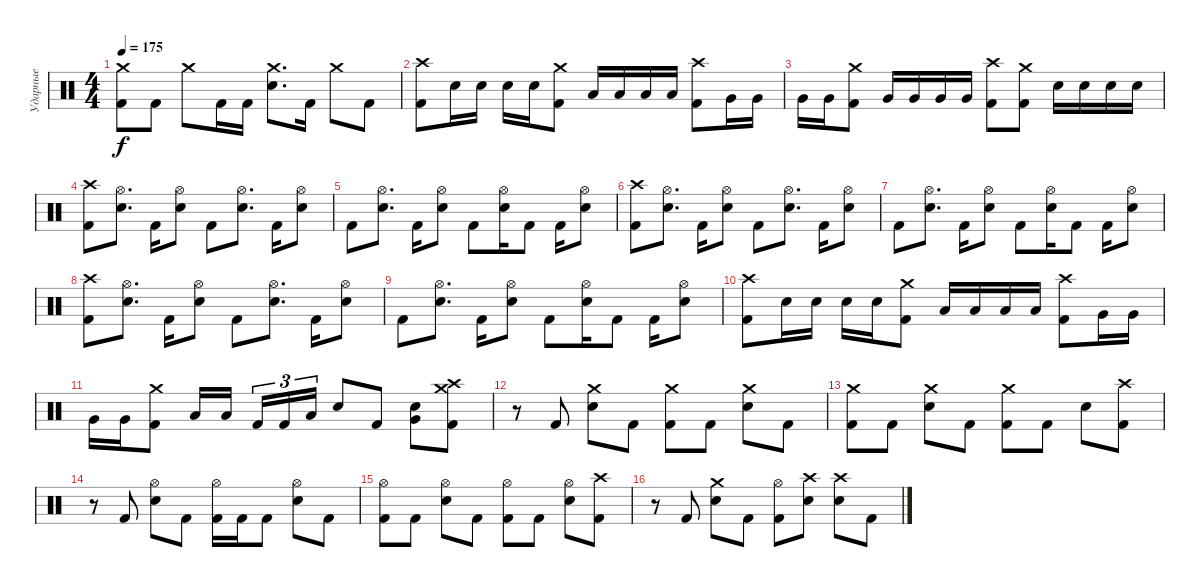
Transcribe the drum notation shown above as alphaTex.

\track ("Ударные" "Ударные") {instrument percussion}
\staff {score}
\articulation defaults
\ts (4 4)
\tempo 175
\clef neutral
\ks c
("Crash medium (hit)" "Kick (hit) 2").8{dy f} "Kick (hit) 2".8 "Crash medium (hit)".8 "Kick (hit) 2".16 "Kick (hit) 2".16 ("Crash medium (hit)" "Electric Snare (hit)").8{d} "Kick (hit) 2".16 "Crash medium (hit)".8 "Kick (hit) 2".8 |
("Crash high (hit)" "Kick (hit) 2").8 "Electric Snare (hit)".16 "Electric Snare (hit)".16 "Electric Snare (hit)".16 "Electric Snare (hit)".16 ("Crash medium (hit)" "Kick (hit) 2").8 "Low Tom (hit)".16 "Low Tom (hit)".16 "Low Tom (hit)".16 "Low Tom (hit)".16 ("Crash high (hit)" "Kick (hit) 2").8 "Very Low Tom (hit)".16 "Very Low Tom (hit)".16 |
"Very Low Tom (hit)".16 "Very Low Tom (hit)".16 ("Crash medium (hit)" "Kick (hit) 2").8 "Very Low Tom (hit)".16 "Very Low Tom (hit)".16 "Very Low Tom (hit)".16 "Very Low Tom (hit)".16 ("Crash high (hit)" "Kick (hit) 2").8 ("Crash medium (hit)" "Kick (hit) 2").8 "Electric Snare (hit)".16 "Electric Snare (hit)".16 "Electric Snare (hit)".16 "Electric Snare (hit)".16 |
("Crash high (hit)" "Kick (hit) 2").8 ("Hi-Hat (open)" "Electric Snare (hit)").8{d} "Kick (hit) 2".16 ("Hi-Hat (open)" "Electric Snare (hit)").8 "Kick (hit) 2".8 ("Hi-Hat (open)" "Electric Snare (hit)").8{d} "Kick (hit) 2".16 ("Hi-Hat (open)" "Electric Snare (hit)").8 |
"Kick (hit) 2".8 ("Hi-Hat (open)" "Electric Snare (hit)").8{d} "Kick (hit) 2".16 ("Hi-Hat (open)" "Electric Snare (hit)").8 "Kick (hit) 2".8 ("Hi-Hat (open)" "Electric Snare (hit)").16 "Kick (hit) 2".8 "Kick (hit) 2".16 ("Hi-Hat (open)" "Electric Snare (hit)").8 |
("Crash high (hit)" "Kick (hit) 2").8 ("Hi-Hat (open)" "Electric Snare (hit)").8{d} "Kick (hit) 2".16 ("Hi-Hat (open)" "Electric Snare (hit)").8 "Kick (hit) 2".8 ("Hi-Hat (open)" "Electric Snare (hit)").8{d} "Kick (hit) 2".16 ("Hi-Hat (open)" "Electric Snare (hit)").8 |
"Kick (hit) 2".8 ("Hi-Hat (open)" "Electric Snare (hit)").8{d} "Kick (hit) 2".16 ("Hi-Hat (open)" "Electric Snare (hit)").8 "Kick (hit) 2".8 ("Hi-Hat (open)" "Electric Snare (hit)").16 "Kick (hit) 2".8 "Kick (hit) 2".16 ("Hi-Hat (open)" "Electric Snare (hit)").8 |
("Crash high (hit)" "Kick (hit) 2").8 ("Hi-Hat (open)" "Electric Snare (hit)").8{d} "Kick (hit) 2".16 ("Hi-Hat (open)" "Electric Snare (hit)").8 "Kick (hit) 2".8 ("Hi-Hat (open)" "Electric Snare (hit)").8{d} "Kick (hit) 2".16 ("Hi-Hat (open)" "Electric Snare (hit)").8 |
"Kick (hit) 2".8 ("Hi-Hat (open)" "Electric Snare (hit)").8{d} "Kick (hit) 2".16 ("Hi-Hat (open)" "Electric Snare (hit)").8 "Kick (hit) 2".8 ("Hi-Hat (open)" "Electric Snare (hit)").16 "Kick (hit) 2".8 "Kick (hit) 2".16 ("Hi-Hat (open)" "Electric Snare (hit)").8 |
("Crash high (hit)" "Kick (hit) 2").8 "Electric Snare (hit)".16 "Electric Snare (hit)".16 "Electric Snare (hit)".16 "Electric Snare (hit)".16 ("Crash medium (hit)" "Kick (hit) 2").8 "Low Tom (hit)".16 "Low Tom (hit)".16 "Low Tom (hit)".16 "Low Tom (hit)".16 ("Crash high (hit)" "Kick (hit) 2").8 "Very Low Tom (hit)".16 "Very Low Tom (hit)".16 |
"Very Low Tom (hit)".16 "Very Low Tom (hit)".16 ("Crash medium (hit)" "Kick (hit) 2").8 "Low Tom (hit)".16 "Low Tom (hit)".16{beam splitsecondary} "Kick (hit) 2".16{tu (3 2)} "Kick (hit) 2".16{tu (3 2)} "Low Tom (hit)".16{tu (3 2)} "Electric Snare (hit)".8 "Kick (hit) 2".8 ("Very Low Tom (hit)" "Electric Snare (hit)").8 ("Crash high (hit)" "Crash medium (hit)" "Kick (hit) 2").8 |
r.8 "Kick (hit) 2".8 ("Crash medium (hit)" "Electric Snare (hit)").8 "Kick (hit) 2".8 ("Crash medium (hit)" "Kick (hit) 2").8 "Kick (hit) 2".8 ("Crash medium (hit)" "Electric Snare (hit)").8 "Kick (hit) 2".8 |
("Crash medium (hit)" "Kick (hit) 2").8 "Kick (hit) 2".8 ("Crash medium (hit)" "Electric Snare (hit)").8 "Kick (hit) 2".8 ("Crash medium (hit)" "Kick (hit) 2").8 "Kick (hit) 2".8 "Electric Snare (hit)".8 ("Crash high (hit)" "Kick (hit) 2").8 |
r.8 "Kick (hit) 2".8 ("Hi-Hat (open)" "Electric Snare (hit)").8 "Kick (hit) 2".8 ("Hi-Hat (open)" "Kick (hit) 2").16 "Kick (hit) 2".16 "Kick (hit) 2".8 ("Hi-Hat (open)" "Electric Snare (hit)").8 "Kick (hit) 2".8 |
("Hi-Hat (open)" "Kick (hit) 2").8 "Kick (hit) 2".8 ("Hi-Hat (open)" "Electric Snare (hit)").8 "Kick (hit) 2".8 ("Hi-Hat (open)" "Kick (hit) 2").8 "Kick (hit) 2".8 ("Hi-Hat (open)" "Electric Snare (hit)").8 ("Crash high (hit)" "Kick (hit) 2").8 |
r.8 "Kick (hit) 2".8 ("Crash medium (hit)" "Electric Snare (hit)").8 "Kick (hit) 2".8 ("Hi-Hat (open)" "Kick (hit) 2").8 ("Crash high (hit)" "Electric Snare (hit)").8 ("Crash high (hit)" "Electric Snare (hit)").8 "Kick (hit) 2".8
